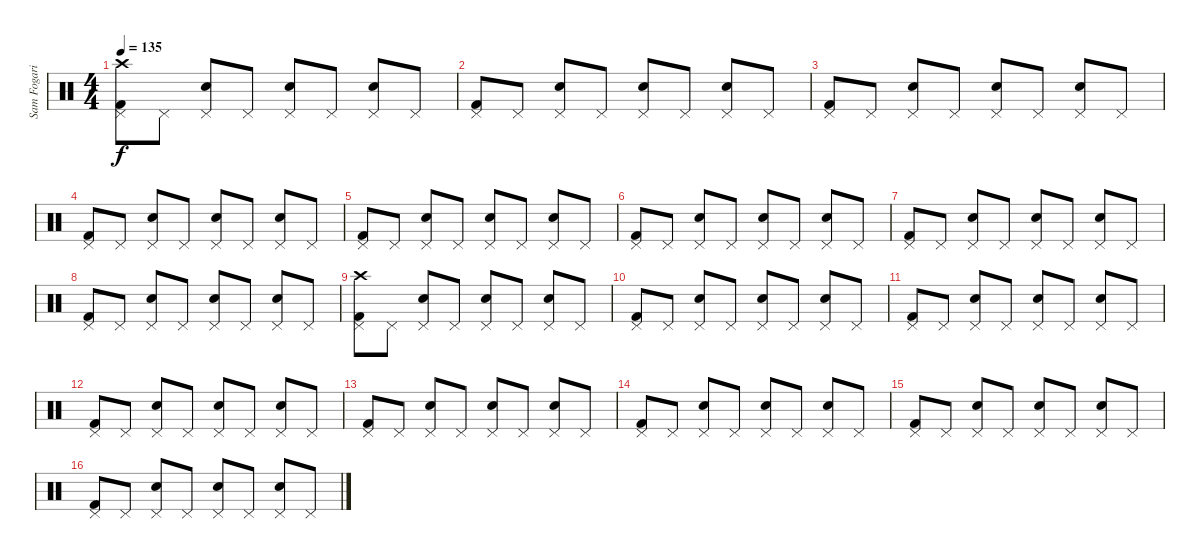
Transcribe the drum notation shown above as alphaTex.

\track ("Sam Fogarino" "Sam Fogari") {instrument percussion}
\staff {score}
\articulation defaults
\ts (4 4)
\tempo 135
\clef neutral
\ks c
("Crash high (hit)" "Kick (hit) 2" "Pedal Hi-Hat (hit)").8{dy f} "Pedal Hi-Hat (hit)".8 ("Electric Snare (hit)" "Pedal Hi-Hat (hit)").8 "Pedal Hi-Hat (hit)".8 ("Electric Snare (hit)" "Pedal Hi-Hat (hit)").8 "Pedal Hi-Hat (hit)".8 ("Electric Snare (hit)" "Pedal Hi-Hat (hit)").8 "Pedal Hi-Hat (hit)".8 |
("Kick (hit) 2" "Pedal Hi-Hat (hit)").8 "Pedal Hi-Hat (hit)".8 ("Electric Snare (hit)" "Pedal Hi-Hat (hit)").8 "Pedal Hi-Hat (hit)".8 ("Electric Snare (hit)" "Pedal Hi-Hat (hit)").8 "Pedal Hi-Hat (hit)".8 ("Electric Snare (hit)" "Pedal Hi-Hat (hit)").8 "Pedal Hi-Hat (hit)".8 |
("Kick (hit) 2" "Pedal Hi-Hat (hit)").8 "Pedal Hi-Hat (hit)".8 ("Electric Snare (hit)" "Pedal Hi-Hat (hit)").8 "Pedal Hi-Hat (hit)".8 ("Electric Snare (hit)" "Pedal Hi-Hat (hit)").8 "Pedal Hi-Hat (hit)".8 ("Electric Snare (hit)" "Pedal Hi-Hat (hit)").8 "Pedal Hi-Hat (hit)".8 |
("Kick (hit) 2" "Pedal Hi-Hat (hit)").8 "Pedal Hi-Hat (hit)".8 ("Electric Snare (hit)" "Pedal Hi-Hat (hit)").8 "Pedal Hi-Hat (hit)".8 ("Electric Snare (hit)" "Pedal Hi-Hat (hit)").8 "Pedal Hi-Hat (hit)".8 ("Electric Snare (hit)" "Pedal Hi-Hat (hit)").8 "Pedal Hi-Hat (hit)".8 |
("Kick (hit) 2" "Pedal Hi-Hat (hit)").8 "Pedal Hi-Hat (hit)".8 ("Electric Snare (hit)" "Pedal Hi-Hat (hit)").8 "Pedal Hi-Hat (hit)".8 ("Electric Snare (hit)" "Pedal Hi-Hat (hit)").8 "Pedal Hi-Hat (hit)".8 ("Electric Snare (hit)" "Pedal Hi-Hat (hit)").8 "Pedal Hi-Hat (hit)".8 |
("Kick (hit) 2" "Pedal Hi-Hat (hit)").8 "Pedal Hi-Hat (hit)".8 ("Electric Snare (hit)" "Pedal Hi-Hat (hit)").8 "Pedal Hi-Hat (hit)".8 ("Electric Snare (hit)" "Pedal Hi-Hat (hit)").8 "Pedal Hi-Hat (hit)".8 ("Electric Snare (hit)" "Pedal Hi-Hat (hit)").8 "Pedal Hi-Hat (hit)".8 |
("Kick (hit) 2" "Pedal Hi-Hat (hit)").8 "Pedal Hi-Hat (hit)".8 ("Electric Snare (hit)" "Pedal Hi-Hat (hit)").8 "Pedal Hi-Hat (hit)".8 ("Electric Snare (hit)" "Pedal Hi-Hat (hit)").8 "Pedal Hi-Hat (hit)".8 ("Electric Snare (hit)" "Pedal Hi-Hat (hit)").8 "Pedal Hi-Hat (hit)".8 |
("Kick (hit) 2" "Pedal Hi-Hat (hit)").8 "Pedal Hi-Hat (hit)".8 ("Electric Snare (hit)" "Pedal Hi-Hat (hit)").8 "Pedal Hi-Hat (hit)".8 ("Electric Snare (hit)" "Pedal Hi-Hat (hit)").8 "Pedal Hi-Hat (hit)".8 ("Electric Snare (hit)" "Pedal Hi-Hat (hit)").8 "Pedal Hi-Hat (hit)".8 |
("Crash high (hit)" "Kick (hit) 2" "Pedal Hi-Hat (hit)").8 "Pedal Hi-Hat (hit)".8 ("Electric Snare (hit)" "Pedal Hi-Hat (hit)").8 "Pedal Hi-Hat (hit)".8 ("Electric Snare (hit)" "Pedal Hi-Hat (hit)").8 "Pedal Hi-Hat (hit)".8 ("Electric Snare (hit)" "Pedal Hi-Hat (hit)").8 "Pedal Hi-Hat (hit)".8 |
("Kick (hit) 2" "Pedal Hi-Hat (hit)").8 "Pedal Hi-Hat (hit)".8 ("Electric Snare (hit)" "Pedal Hi-Hat (hit)").8 "Pedal Hi-Hat (hit)".8 ("Electric Snare (hit)" "Pedal Hi-Hat (hit)").8 "Pedal Hi-Hat (hit)".8 ("Electric Snare (hit)" "Pedal Hi-Hat (hit)").8 "Pedal Hi-Hat (hit)".8 |
("Kick (hit) 2" "Pedal Hi-Hat (hit)").8 "Pedal Hi-Hat (hit)".8 ("Electric Snare (hit)" "Pedal Hi-Hat (hit)").8 "Pedal Hi-Hat (hit)".8 ("Electric Snare (hit)" "Pedal Hi-Hat (hit)").8 "Pedal Hi-Hat (hit)".8 ("Electric Snare (hit)" "Pedal Hi-Hat (hit)").8 "Pedal Hi-Hat (hit)".8 |
("Kick (hit) 2" "Pedal Hi-Hat (hit)").8 "Pedal Hi-Hat (hit)".8 ("Electric Snare (hit)" "Pedal Hi-Hat (hit)").8 "Pedal Hi-Hat (hit)".8 ("Electric Snare (hit)" "Pedal Hi-Hat (hit)").8 "Pedal Hi-Hat (hit)".8 ("Electric Snare (hit)" "Pedal Hi-Hat (hit)").8 "Pedal Hi-Hat (hit)".8 |
("Kick (hit) 2" "Pedal Hi-Hat (hit)").8 "Pedal Hi-Hat (hit)".8 ("Electric Snare (hit)" "Pedal Hi-Hat (hit)").8 "Pedal Hi-Hat (hit)".8 ("Electric Snare (hit)" "Pedal Hi-Hat (hit)").8 "Pedal Hi-Hat (hit)".8 ("Electric Snare (hit)" "Pedal Hi-Hat (hit)").8 "Pedal Hi-Hat (hit)".8 |
("Kick (hit) 2" "Pedal Hi-Hat (hit)").8 "Pedal Hi-Hat (hit)".8 ("Electric Snare (hit)" "Pedal Hi-Hat (hit)").8 "Pedal Hi-Hat (hit)".8 ("Electric Snare (hit)" "Pedal Hi-Hat (hit)").8 "Pedal Hi-Hat (hit)".8 ("Electric Snare (hit)" "Pedal Hi-Hat (hit)").8 "Pedal Hi-Hat (hit)".8 |
("Kick (hit) 2" "Pedal Hi-Hat (hit)").8 "Pedal Hi-Hat (hit)".8 ("Electric Snare (hit)" "Pedal Hi-Hat (hit)").8 "Pedal Hi-Hat (hit)".8 ("Electric Snare (hit)" "Pedal Hi-Hat (hit)").8 "Pedal Hi-Hat (hit)".8 ("Electric Snare (hit)" "Pedal Hi-Hat (hit)").8 "Pedal Hi-Hat (hit)".8 |
("Kick (hit) 2" "Pedal Hi-Hat (hit)").8 "Pedal Hi-Hat (hit)".8 ("Electric Snare (hit)" "Pedal Hi-Hat (hit)").8 "Pedal Hi-Hat (hit)".8 ("Electric Snare (hit)" "Pedal Hi-Hat (hit)").8 "Pedal Hi-Hat (hit)".8 ("Electric Snare (hit)" "Pedal Hi-Hat (hit)").8 "Pedal Hi-Hat (hit)".8
